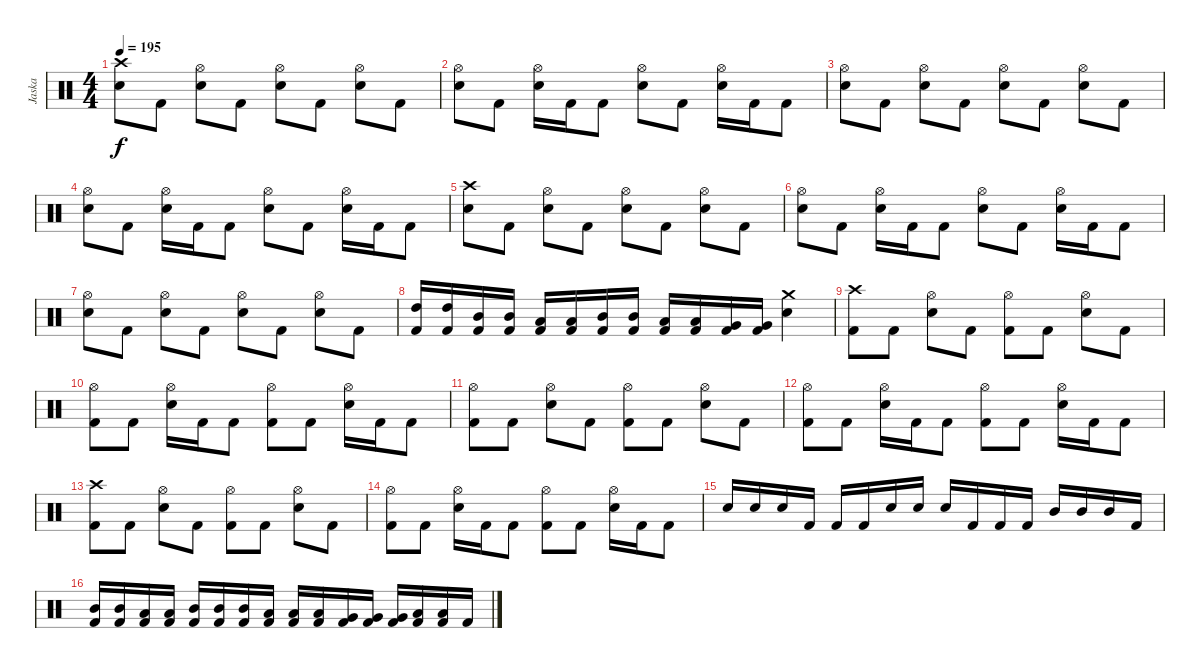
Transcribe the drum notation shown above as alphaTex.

\track ("Jaska" "Jaska") {instrument percussion}
\staff {score}
\articulation defaults
\ts (4 4)
\tempo 195
\clef neutral
\ks c
("Crash high (hit)" "Electric Snare (hit)").8{dy f} "Kick (hit) 2".8 ("Hi-Hat (open)" "Electric Snare (hit)").8 "Kick (hit) 2".8 ("Hi-Hat (open)" "Electric Snare (hit)").8 "Kick (hit) 2".8 ("Hi-Hat (open)" "Electric Snare (hit)").8 "Kick (hit) 2".8 |
("Hi-Hat (open)" "Electric Snare (hit)").8 "Kick (hit) 2".8 ("Hi-Hat (open)" "Electric Snare (hit)").16 "Kick (hit) 2".16 "Kick (hit) 2".8 ("Hi-Hat (open)" "Electric Snare (hit)").8 "Kick (hit) 2".8 ("Hi-Hat (open)" "Electric Snare (hit)").16 "Kick (hit) 2".16 "Kick (hit) 2".8 |
("Hi-Hat (open)" "Electric Snare (hit)").8 "Kick (hit) 2".8 ("Hi-Hat (open)" "Electric Snare (hit)").8 "Kick (hit) 2".8 ("Hi-Hat (open)" "Electric Snare (hit)").8 "Kick (hit) 2".8 ("Hi-Hat (open)" "Electric Snare (hit)").8 "Kick (hit) 2".8 |
("Hi-Hat (open)" "Electric Snare (hit)").8 "Kick (hit) 2".8 ("Hi-Hat (open)" "Electric Snare (hit)").16 "Kick (hit) 2".16 "Kick (hit) 2".8 ("Hi-Hat (open)" "Electric Snare (hit)").8 "Kick (hit) 2".8 ("Hi-Hat (open)" "Electric Snare (hit)").16 "Kick (hit) 2".16 "Kick (hit) 2".8 |
("Crash high (hit)" "Electric Snare (hit)").8 "Kick (hit) 2".8 ("Hi-Hat (open)" "Electric Snare (hit)").8 "Kick (hit) 2".8 ("Hi-Hat (open)" "Electric Snare (hit)").8 "Kick (hit) 2".8 ("Hi-Hat (open)" "Electric Snare (hit)").8 "Kick (hit) 2".8 |
("Hi-Hat (open)" "Electric Snare (hit)").8 "Kick (hit) 2".8 ("Hi-Hat (open)" "Electric Snare (hit)").16 "Kick (hit) 2".16 "Kick (hit) 2".8 ("Hi-Hat (open)" "Electric Snare (hit)").8 "Kick (hit) 2".8 ("Hi-Hat (open)" "Electric Snare (hit)").16 "Kick (hit) 2".16 "Kick (hit) 2".8 |
("Hi-Hat (open)" "Electric Snare (hit)").8 "Kick (hit) 2".8 ("Hi-Hat (open)" "Electric Snare (hit)").8 "Kick (hit) 2".8 ("Hi-Hat (open)" "Electric Snare (hit)").8 "Kick (hit) 2".8 ("Hi-Hat (open)" "Electric Snare (hit)").8 "Kick (hit) 2".8 |
("High Tom (hit)" "Kick (hit) 2").16 ("High Tom (hit)" "Kick (hit) 2").16 ("Mid Tom (hit)" "Kick (hit) 2").16 ("Mid Tom (hit)" "Kick (hit) 2").16 ("Low Tom (hit)" "Kick (hit) 2").16 ("Low Tom (hit)" "Kick (hit) 2").16 ("Mid Tom (hit)" "Kick (hit) 2").16 ("Mid Tom (hit)" "Kick (hit) 2").16 ("Low Tom (hit)" "Kick (hit) 2").16 ("Low Tom (hit)" "Kick (hit) 2").16 ("Very Low Tom (hit)" "Kick (hit) 2").16 ("Very Low Tom (hit)" "Kick (hit) 2").16 ("Crash medium (hit)" "Electric Snare (hit)").4 |
("Crash high (hit)" "Kick (hit) 2").8 "Kick (hit) 2".8 ("Hi-Hat (open)" "Electric Snare (hit)").8 "Kick (hit) 2".8 ("Hi-Hat (open)" "Kick (hit) 2").8 "Kick (hit) 2".8 ("Hi-Hat (open)" "Electric Snare (hit)").8 "Kick (hit) 2".8 |
("Hi-Hat (open)" "Kick (hit) 2").8 "Kick (hit) 2".8 ("Hi-Hat (open)" "Electric Snare (hit)").16 "Kick (hit) 2".16 "Kick (hit) 2".8 ("Hi-Hat (open)" "Kick (hit) 2").8 "Kick (hit) 2".8 ("Hi-Hat (open)" "Electric Snare (hit)").16 "Kick (hit) 2".16 "Kick (hit) 2".8 |
("Hi-Hat (open)" "Kick (hit) 2").8 "Kick (hit) 2".8 ("Hi-Hat (open)" "Electric Snare (hit)").8 "Kick (hit) 2".8 ("Hi-Hat (open)" "Kick (hit) 2").8 "Kick (hit) 2".8 ("Hi-Hat (open)" "Electric Snare (hit)").8 "Kick (hit) 2".8 |
("Hi-Hat (open)" "Kick (hit) 2").8 "Kick (hit) 2".8 ("Hi-Hat (open)" "Electric Snare (hit)").16 "Kick (hit) 2".16 "Kick (hit) 2".8 ("Hi-Hat (open)" "Kick (hit) 2").8 "Kick (hit) 2".8 ("Hi-Hat (open)" "Electric Snare (hit)").16 "Kick (hit) 2".16 "Kick (hit) 2".8 |
("Crash high (hit)" "Kick (hit) 2").8 "Kick (hit) 2".8 ("Hi-Hat (open)" "Electric Snare (hit)").8 "Kick (hit) 2".8 ("Hi-Hat (open)" "Kick (hit) 2").8 "Kick (hit) 2".8 ("Hi-Hat (open)" "Electric Snare (hit)").8 "Kick (hit) 2".8 |
("Hi-Hat (open)" "Kick (hit) 2").8 "Kick (hit) 2".8 ("Hi-Hat (open)" "Electric Snare (hit)").16 "Kick (hit) 2".16 "Kick (hit) 2".8 ("Hi-Hat (open)" "Kick (hit) 2").8 "Kick (hit) 2".8 ("Hi-Hat (open)" "Electric Snare (hit)").16 "Kick (hit) 2".16 "Kick (hit) 2".8 |
"Electric Snare (hit)".16 "Electric Snare (hit)".16 "Electric Snare (hit)".16 "Kick (hit) 2".16 "Kick (hit) 2".16 "Kick (hit) 2".16 "Electric Snare (hit)".16 "Electric Snare (hit)".16 "Electric Snare (hit)".16 "Kick (hit) 2".16 "Kick (hit) 2".16 "Kick (hit) 2".16 "Mid Tom (hit)".16 "Mid Tom (hit)".16 "Mid Tom (hit)".16 "Kick (hit) 2".16 |
("Mid Tom (hit)" "Kick (hit) 2").16 ("Mid Tom (hit)" "Kick (hit) 2").16 ("Low Tom (hit)" "Kick (hit) 2").16 ("Low Tom (hit)" "Kick (hit) 2").16 ("Mid Tom (hit)" "Kick (hit) 2").16 ("Mid Tom (hit)" "Kick (hit) 2").16 ("Mid Tom (hit)" "Kick (hit) 2").16 ("Low Tom (hit)" "Kick (hit) 2").16 ("Low Tom (hit)" "Kick (hit) 2").16 ("Low Tom (hit)" "Kick (hit) 2").16 ("Very Low Tom (hit)" "Kick (hit) 2").16 ("Very Low Tom (hit)" "Kick (hit) 2").16 ("Very Low Tom (hit)" "Kick (hit) 2").16 ("Low Floor Tom (hit)" "Kick (hit) 2").16 ("Low Floor Tom (hit)" "Kick (hit) 2").16 "Kick (hit) 2".16
